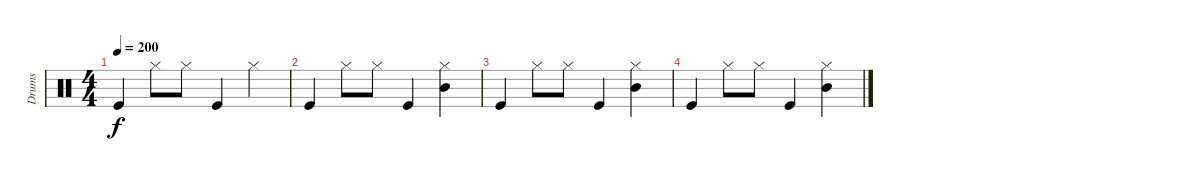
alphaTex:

\track ("Drums" "Drums") {instrument percussion}
\staff {score}
\articulation defaults
\ts (4 4)
\tempo 200
\clef neutral
\ks c "Kick (hit)".4{dy f} "Hi-Hat (closed)".8 "Hi-Hat (closed)".8 "Kick (hit)".4 "Hi-Hat (closed)".4
|
"Kick (hit)".4 "Hi-Hat (closed)".8 "Hi-Hat (closed)".8 "Kick (hit)".4 ("Mid Tom (hit)" "Hi-Hat (closed)").4 |
"Kick (hit)".4 "Hi-Hat (closed)".8 "Hi-Hat (closed)".8 "Kick (hit)".4 ("Mid Tom (hit)" "Hi-Hat (closed)").4 |
"Kick (hit)".4 "Hi-Hat (closed)".8 "Hi-Hat (closed)".8 "Kick (hit)".4 ("Mid Tom (hit)" "Hi-Hat (closed)").4
